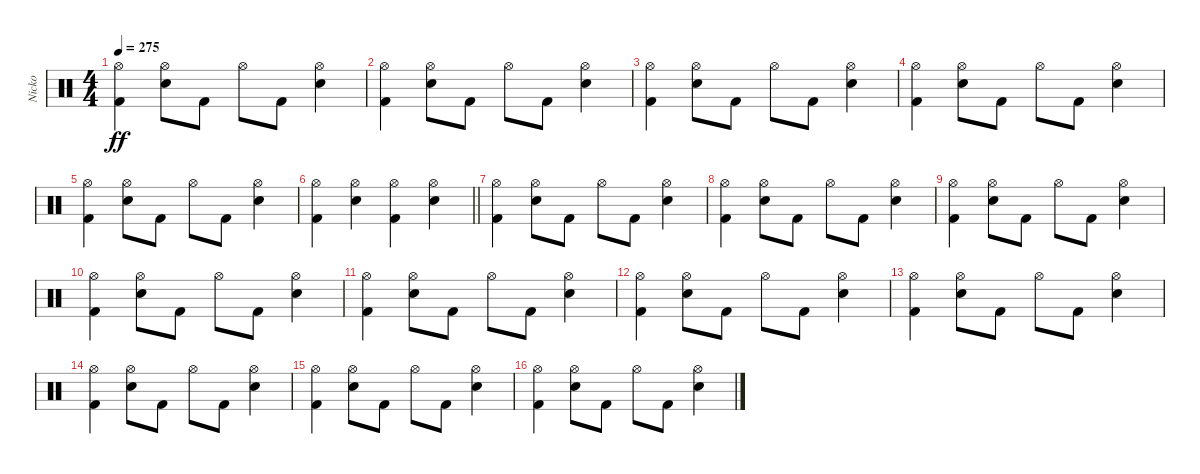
\track ("Nicko" "Nicko") {instrument percussion}
\staff {score}
\articulation defaults
\ts (4 4)
\tempo 275
\clef neutral
\ks c
("Kick (hit) 2" "Hi-Hat (open)").4{dy ff} ("Snare (hit) 2" "Hi-Hat (open)").8 "Kick (hit) 2".8 "Hi-Hat (open)".8 "Kick (hit) 2".8 ("Snare (hit) 2" "Hi-Hat (open)").4 |
("Kick (hit) 2" "Hi-Hat (open)").4 ("Snare (hit) 2" "Hi-Hat (open)").8 "Kick (hit) 2".8 "Hi-Hat (open)".8 "Kick (hit) 2".8 ("Snare (hit) 2" "Hi-Hat (open)").4 |
("Kick (hit) 2" "Hi-Hat (open)").4 ("Snare (hit) 2" "Hi-Hat (open)").8 "Kick (hit) 2".8 "Hi-Hat (open)".8 "Kick (hit) 2".8 ("Snare (hit) 2" "Hi-Hat (open)").4 |
("Kick (hit) 2" "Hi-Hat (open)").4 ("Snare (hit) 2" "Hi-Hat (open)").8 "Kick (hit) 2".8 "Hi-Hat (open)".8 "Kick (hit) 2".8 ("Snare (hit) 2" "Hi-Hat (open)").4 |
("Kick (hit) 2" "Hi-Hat (open)").4 ("Snare (hit) 2" "Hi-Hat (open)").8 "Kick (hit) 2".8 "Hi-Hat (open)".8 "Kick (hit) 2".8 ("Snare (hit) 2" "Hi-Hat (open)").4 |
\barLineRight lightlight
("Kick (hit) 2" "Hi-Hat (open)").4 ("Snare (hit) 2" "Hi-Hat (open)").4 ("Kick (hit) 2" "Hi-Hat (open)").4 ("Snare (hit) 2" "Hi-Hat (open)").4 |
("Kick (hit) 2" "Hi-Hat (open)").4 ("Snare (hit) 2" "Hi-Hat (open)").8 "Kick (hit) 2".8 "Hi-Hat (open)".8 "Kick (hit) 2".8 ("Snare (hit) 2" "Hi-Hat (open)").4 |
("Kick (hit) 2" "Hi-Hat (open)").4 ("Snare (hit) 2" "Hi-Hat (open)").8 "Kick (hit) 2".8 "Hi-Hat (open)".8 "Kick (hit) 2".8 ("Snare (hit) 2" "Hi-Hat (open)").4 |
("Kick (hit) 2" "Hi-Hat (open)").4 ("Snare (hit) 2" "Hi-Hat (open)").8 "Kick (hit) 2".8 "Hi-Hat (open)".8 "Kick (hit) 2".8 ("Snare (hit) 2" "Hi-Hat (open)").4 |
("Kick (hit) 2" "Hi-Hat (open)").4 ("Snare (hit) 2" "Hi-Hat (open)").8 "Kick (hit) 2".8 "Hi-Hat (open)".8 "Kick (hit) 2".8 ("Snare (hit) 2" "Hi-Hat (open)").4 |
("Kick (hit) 2" "Hi-Hat (open)").4 ("Snare (hit) 2" "Hi-Hat (open)").8 "Kick (hit) 2".8 "Hi-Hat (open)".8 "Kick (hit) 2".8 ("Snare (hit) 2" "Hi-Hat (open)").4 |
("Kick (hit) 2" "Hi-Hat (open)").4 ("Snare (hit) 2" "Hi-Hat (open)").8 "Kick (hit) 2".8 "Hi-Hat (open)".8 "Kick (hit) 2".8 ("Snare (hit) 2" "Hi-Hat (open)").4 |
("Kick (hit) 2" "Hi-Hat (open)").4 ("Snare (hit) 2" "Hi-Hat (open)").8 "Kick (hit) 2".8 "Hi-Hat (open)".8 "Kick (hit) 2".8 ("Snare (hit) 2" "Hi-Hat (open)").4 |
("Kick (hit) 2" "Hi-Hat (open)").4 ("Snare (hit) 2" "Hi-Hat (open)").8 "Kick (hit) 2".8 "Hi-Hat (open)".8 "Kick (hit) 2".8 ("Snare (hit) 2" "Hi-Hat (open)").4 |
("Kick (hit) 2" "Hi-Hat (open)").4 ("Snare (hit) 2" "Hi-Hat (open)").8 "Kick (hit) 2".8 "Hi-Hat (open)".8 "Kick (hit) 2".8 ("Snare (hit) 2" "Hi-Hat (open)").4 |
("Kick (hit) 2" "Hi-Hat (open)").4 ("Snare (hit) 2" "Hi-Hat (open)").8 "Kick (hit) 2".8 "Hi-Hat (open)".8 "Kick (hit) 2".8 ("Snare (hit) 2" "Hi-Hat (open)").4
